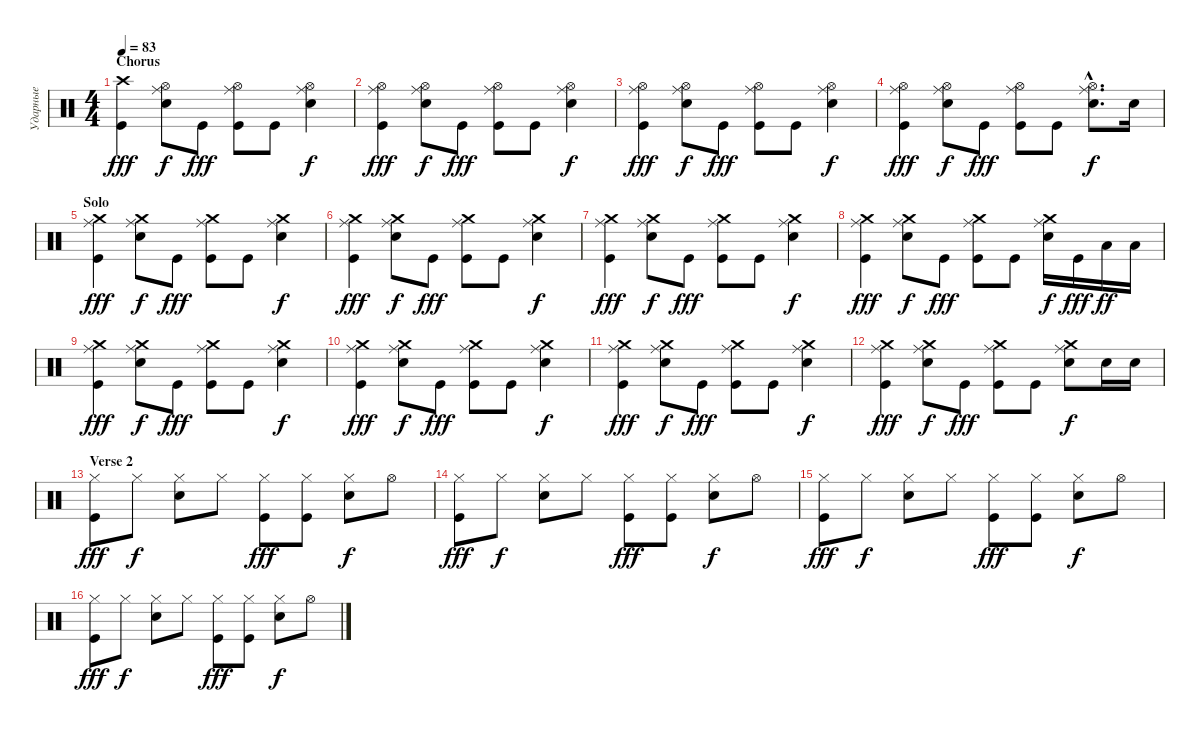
\track ("Ударные" "Ударные") {instrument percussion}
\staff {score}
\articulation defaults
\ts (4 4)
\section ("" "Chorus")
\tempo 83
\clef neutral
\ks c
("Kick (hit)" "Crash high (hit)").4{dy fff} ("Electric Snare (hit)" "Hi-Hat (open)" "Ride (middle)").8{dy f} "Kick (hit)".8{dy fff} ("Kick (hit)" "Hi-Hat (open)" "Ride (middle)").8 "Kick (hit)".8 ("Electric Snare (hit)" "Hi-Hat (open)" "Ride (middle)").4{dy f} |
("Kick (hit)" "Hi-Hat (open)" "Ride (middle)").4{dy fff} ("Electric Snare (hit)" "Hi-Hat (open)" "Ride (middle)").8{dy f} "Kick (hit)".8{dy fff} ("Kick (hit)" "Hi-Hat (open)" "Ride (middle)").8 "Kick (hit)".8 ("Electric Snare (hit)" "Hi-Hat (open)" "Ride (middle)").4{dy f} |
("Kick (hit)" "Hi-Hat (open)" "Ride (middle)").4{dy fff} ("Electric Snare (hit)" "Hi-Hat (open)" "Ride (middle)").8{dy f} "Kick (hit)".8{dy fff} ("Kick (hit)" "Hi-Hat (open)" "Ride (middle)").8 "Kick (hit)".8 ("Electric Snare (hit)" "Hi-Hat (open)" "Ride (middle)").4{dy f} |
("Kick (hit)" "Hi-Hat (open)" "Ride (middle)").4{dy fff} ("Electric Snare (hit)" "Hi-Hat (open)" "Ride (middle)").8{dy f} "Kick (hit)".8{dy fff} ("Kick (hit)" "Hi-Hat (open)" "Ride (middle)").8 "Kick (hit)".8 ("Electric Snare (hit)"{hac} "Hi-Hat (open)"{hac} "Ride (middle)"{hac}).8{d dy f} "Electric Snare (hit)".16 |
\section ("" "Solo")
("Kick (hit)" "Crash medium (hit)" "Ride (middle)").4{dy fff} ("Electric Snare (hit)" "Crash medium (hit)" "Ride (middle)").8{dy f} "Kick (hit)".8{dy fff} ("Kick (hit)" "Crash medium (hit)" "Ride (middle)").8 "Kick (hit)".8 ("Electric Snare (hit)" "Crash medium (hit)" "Ride (middle)").4{dy f} |
("Kick (hit)" "Crash medium (hit)" "Ride (middle)").4{dy fff} ("Electric Snare (hit)" "Crash medium (hit)" "Ride (middle)").8{dy f} "Kick (hit)".8{dy fff} ("Kick (hit)" "Crash medium (hit)" "Ride (middle)").8 "Kick (hit)".8 ("Electric Snare (hit)" "Crash medium (hit)" "Ride (middle)").4{dy f} |
("Kick (hit)" "Crash medium (hit)" "Ride (middle)").4{dy fff} ("Electric Snare (hit)" "Crash medium (hit)" "Ride (middle)").8{dy f} "Kick (hit)".8{dy fff} ("Kick (hit)" "Crash medium (hit)" "Ride (middle)").8 "Kick (hit)".8 ("Electric Snare (hit)" "Crash medium (hit)" "Ride (middle)").4{dy f} |
("Kick (hit)" "Crash medium (hit)" "Ride (middle)").4{dy fff} ("Electric Snare (hit)" "Crash medium (hit)" "Ride (middle)").8{dy f} "Kick (hit)".8{dy fff} ("Kick (hit)" "Crash medium (hit)" "Ride (middle)").8 "Kick (hit)".8 ("Electric Snare (hit)" "Crash medium (hit)" "Ride (middle)").16{dy f} "Kick (hit)".16{dy fff} "Low Tom (hit)".16{dy ff} "Low Tom (hit)".16 |
("Kick (hit)" "Crash medium (hit)" "Ride (middle)").4{dy fff} ("Electric Snare (hit)" "Crash medium (hit)" "Ride (middle)").8{dy f} "Kick (hit)".8{dy fff} ("Kick (hit)" "Crash medium (hit)" "Ride (middle)").8 "Kick (hit)".8 ("Electric Snare (hit)" "Crash medium (hit)" "Ride (middle)").4{dy f} |
("Kick (hit)" "Crash medium (hit)" "Ride (middle)").4{dy fff} ("Electric Snare (hit)" "Crash medium (hit)" "Ride (middle)").8{dy f} "Kick (hit)".8{dy fff} ("Kick (hit)" "Crash medium (hit)" "Ride (middle)").8 "Kick (hit)".8 ("Electric Snare (hit)" "Crash medium (hit)" "Ride (middle)").4{dy f} |
("Kick (hit)" "Crash medium (hit)" "Ride (middle)").4{dy fff} ("Electric Snare (hit)" "Crash medium (hit)" "Ride (middle)").8{dy f} "Kick (hit)".8{dy fff} ("Kick (hit)" "Crash medium (hit)" "Ride (middle)").8 "Kick (hit)".8 ("Electric Snare (hit)" "Crash medium (hit)" "Ride (middle)").4{dy f} |
("Kick (hit)" "Crash medium (hit)" "Ride (middle)").4{dy fff} ("Electric Snare (hit)" "Crash medium (hit)" "Ride (middle)").8{dy f} "Kick (hit)".8{dy fff} ("Kick (hit)" "Crash medium (hit)" "Ride (middle)").8 "Kick (hit)".8 ("Electric Snare (hit)" "Crash medium (hit)" "Ride (middle)").8{dy f} "Electric Snare (hit)".16 "Electric Snare (hit)".16 |
\section ("" "Verse 2")
("Kick (hit)" "Hi-Hat (closed)").8{dy fff} "Hi-Hat (closed)".8{dy f} ("Electric Snare (hit)" "Hi-Hat (closed)").8 "Hi-Hat (closed)".8 ("Kick (hit)" "Hi-Hat (closed)").8{dy fff} ("Kick (hit)" "Hi-Hat (closed)").8 ("Electric Snare (hit)" "Hi-Hat (closed)").8{dy f} "Hi-Hat (open)".8 |
("Kick (hit)" "Hi-Hat (closed)").8{dy fff} "Hi-Hat (closed)".8{dy f} ("Electric Snare (hit)" "Hi-Hat (closed)").8 "Hi-Hat (closed)".8 ("Kick (hit)" "Hi-Hat (closed)").8{dy fff} ("Kick (hit)" "Hi-Hat (closed)").8 ("Electric Snare (hit)" "Hi-Hat (closed)").8{dy f} "Hi-Hat (open)".8 |
("Kick (hit)" "Hi-Hat (closed)").8{dy fff} "Hi-Hat (closed)".8{dy f} ("Electric Snare (hit)" "Hi-Hat (closed)").8 "Hi-Hat (closed)".8 ("Kick (hit)" "Hi-Hat (closed)").8{dy fff} ("Kick (hit)" "Hi-Hat (closed)").8 ("Electric Snare (hit)" "Hi-Hat (closed)").8{dy f} "Hi-Hat (open)".8 |
("Kick (hit)" "Hi-Hat (closed)").8{dy fff} "Hi-Hat (closed)".8{dy f} ("Electric Snare (hit)" "Hi-Hat (closed)").8 "Hi-Hat (closed)".8 ("Kick (hit)" "Hi-Hat (closed)").8{dy fff} ("Kick (hit)" "Hi-Hat (closed)").8 ("Electric Snare (hit)" "Hi-Hat (closed)").8{dy f} "Hi-Hat (open)".8
